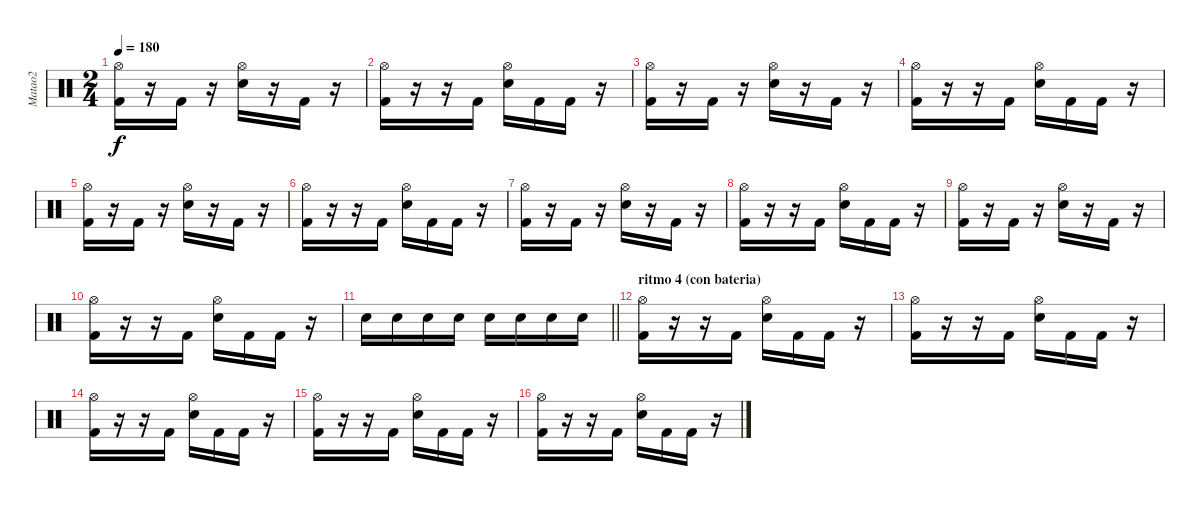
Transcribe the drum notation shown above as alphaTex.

\track ("Matao2" "Matao2") {instrument percussion}
\staff {score}
\articulation defaults
\ts (2 4)
\tempo 180
\clef neutral
\ks c
("Kick (hit) 2" "Hi-Hat (open)").16{dy f} r.16 "Kick (hit) 2".16 r.16 ("Electric Snare (hit)" "Hi-Hat (open)").16 r.16 "Kick (hit) 2".16 r.16 |
("Kick (hit) 2" "Hi-Hat (open)").16 r.16 r.16 "Kick (hit) 2".16 ("Electric Snare (hit)" "Hi-Hat (open)").16 "Kick (hit) 2".16 "Kick (hit) 2".16 r.16 |
("Kick (hit) 2" "Hi-Hat (open)").16 r.16 "Kick (hit) 2".16 r.16 ("Electric Snare (hit)" "Hi-Hat (open)").16 r.16 "Kick (hit) 2".16 r.16 |
("Kick (hit) 2" "Hi-Hat (open)").16 r.16 r.16 "Kick (hit) 2".16 ("Electric Snare (hit)" "Hi-Hat (open)").16 "Kick (hit) 2".16 "Kick (hit) 2".16 r.16 |
("Kick (hit) 2" "Hi-Hat (open)").16 r.16 "Kick (hit) 2".16 r.16 ("Electric Snare (hit)" "Hi-Hat (open)").16 r.16 "Kick (hit) 2".16 r.16 |
("Kick (hit) 2" "Hi-Hat (open)").16 r.16 r.16 "Kick (hit) 2".16 ("Electric Snare (hit)" "Hi-Hat (open)").16 "Kick (hit) 2".16 "Kick (hit) 2".16 r.16 |
("Kick (hit) 2" "Hi-Hat (open)").16 r.16 "Kick (hit) 2".16 r.16 ("Electric Snare (hit)" "Hi-Hat (open)").16 r.16 "Kick (hit) 2".16 r.16 |
("Kick (hit) 2" "Hi-Hat (open)").16 r.16 r.16 "Kick (hit) 2".16 ("Electric Snare (hit)" "Hi-Hat (open)").16 "Kick (hit) 2".16 "Kick (hit) 2".16 r.16 |
("Kick (hit) 2" "Hi-Hat (open)").16 r.16 "Kick (hit) 2".16 r.16 ("Electric Snare (hit)" "Hi-Hat (open)").16 r.16 "Kick (hit) 2".16 r.16 |
("Kick (hit) 2" "Hi-Hat (open)").16 r.16 r.16 "Kick (hit) 2".16 ("Electric Snare (hit)" "Hi-Hat (open)").16 "Kick (hit) 2".16 "Kick (hit) 2".16 r.16 |
\barLineRight lightlight "Electric Snare (hit)".16 "Electric Snare (hit)".16 "Electric Snare (hit)".16 "Electric Snare (hit)".16 "Electric Snare (hit)".16 "Electric Snare (hit)".16 "Electric Snare (hit)".16 "Electric Snare (hit)".16
|
\section ("" "ritmo 4 (con bateria)")
("Kick (hit) 2" "Hi-Hat (open)").16 r.16 r.16 "Kick (hit) 2".16 ("Electric Snare (hit)" "Hi-Hat (open)").16 "Kick (hit) 2".16 "Kick (hit) 2".16 r.16 |
("Kick (hit) 2" "Hi-Hat (open)").16 r.16 r.16 "Kick (hit) 2".16 ("Electric Snare (hit)" "Hi-Hat (open)").16 "Kick (hit) 2".16 "Kick (hit) 2".16 r.16 |
("Kick (hit) 2" "Hi-Hat (open)").16 r.16 r.16 "Kick (hit) 2".16 ("Electric Snare (hit)" "Hi-Hat (open)").16 "Kick (hit) 2".16 "Kick (hit) 2".16 r.16 |
("Kick (hit) 2" "Hi-Hat (open)").16 r.16 r.16 "Kick (hit) 2".16 ("Electric Snare (hit)" "Hi-Hat (open)").16 "Kick (hit) 2".16 "Kick (hit) 2".16 r.16 |
("Kick (hit) 2" "Hi-Hat (open)").16 r.16 r.16 "Kick (hit) 2".16 ("Electric Snare (hit)" "Hi-Hat (open)").16 "Kick (hit) 2".16 "Kick (hit) 2".16 r.16
